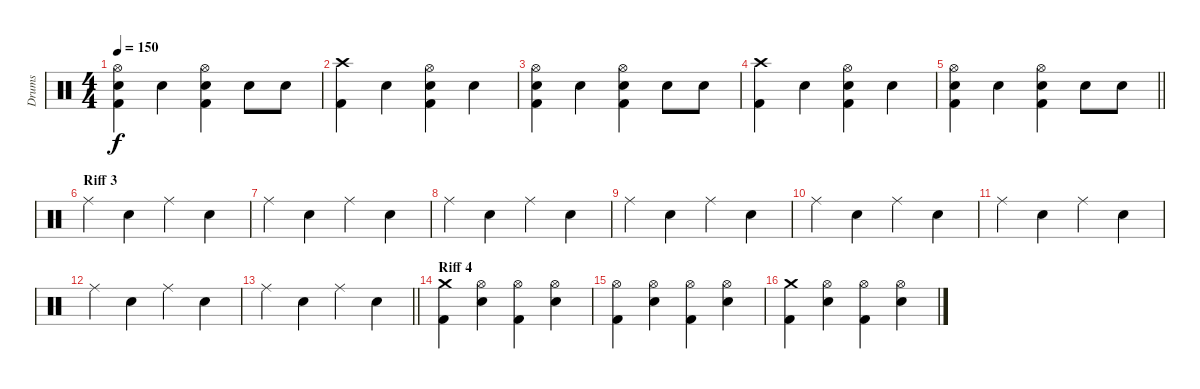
\track ("Drums" "Drums") {instrument percussion}
\staff
\articulation defaults
\ts (4 4)
\tempo 150
\clef neutral
\ks c
("Hi-Hat (open)" "Snare (hit) 2" "Kick (hit) 2").4{dy f} "Snare (hit) 2".4 ("Hi-Hat (open)" "Snare (hit) 2" "Kick (hit) 2").4 "Snare (hit) 2".8 "Snare (hit) 2".8 |
("Crash high (hit)" "Kick (hit) 2").4 "Snare (hit) 2".4 ("Hi-Hat (open)" "Snare (hit) 2" "Kick (hit) 2").4 "Snare (hit) 2".4 |
("Hi-Hat (open)" "Snare (hit) 2" "Kick (hit) 2").4 "Snare (hit) 2".4 ("Hi-Hat (open)" "Snare (hit) 2" "Kick (hit) 2").4 "Snare (hit) 2".8 "Snare (hit) 2".8 |
("Crash high (hit)" "Kick (hit) 2").4 "Snare (hit) 2".4 ("Hi-Hat (open)" "Snare (hit) 2" "Kick (hit) 2").4 "Snare (hit) 2".4 |
\barLineRight lightlight
("Hi-Hat (open)" "Snare (hit) 2" "Kick (hit) 2").4 "Snare (hit) 2".4 ("Hi-Hat (open)" "Snare (hit) 2" "Kick (hit) 2").4 "Snare (hit) 2".8 "Snare (hit) 2".8 |
\section ("" "Riff 3")
"Ride (middle)".4 "Snare (hit) 2".4 "Ride (middle)".4 "Snare (hit) 2".4 |
"Ride (middle)".4 "Snare (hit) 2".4 "Ride (middle)".4 "Snare (hit) 2".4 |
"Ride (middle)".4 "Snare (hit) 2".4 "Ride (middle)".4 "Snare (hit) 2".4 |
"Ride (middle)".4 "Snare (hit) 2".4 "Ride (middle)".4 "Snare (hit) 2".4 |
"Ride (middle)".4 "Snare (hit) 2".4 "Ride (middle)".4 "Snare (hit) 2".4 |
"Ride (middle)".4 "Snare (hit) 2".4 "Ride (middle)".4 "Snare (hit) 2".4 |
"Ride (middle)".4 "Snare (hit) 2".4 "Ride (middle)".4 "Snare (hit) 2".4 |
\barLineRight lightlight "Ride (middle)".4 "Snare (hit) 2".4 "Ride (middle)".4 "Snare (hit) 2".4
|
\section ("" "Riff 4")
("Crash medium (hit)" "Kick (hit) 2").4 ("Hi-Hat (open)" "Snare (hit) 2").4 ("Hi-Hat (open)" "Kick (hit) 2").4 ("Hi-Hat (open)" "Snare (hit) 2").4 |
("Hi-Hat (open)" "Kick (hit) 2").4 ("Hi-Hat (open)" "Snare (hit) 2").4 ("Hi-Hat (open)" "Kick (hit) 2").4 ("Hi-Hat (open)" "Snare (hit) 2").4 |
("Crash medium (hit)" "Kick (hit) 2").4 ("Hi-Hat (open)" "Snare (hit) 2").4 ("Hi-Hat (open)" "Kick (hit) 2").4 ("Hi-Hat (open)" "Snare (hit) 2").4
